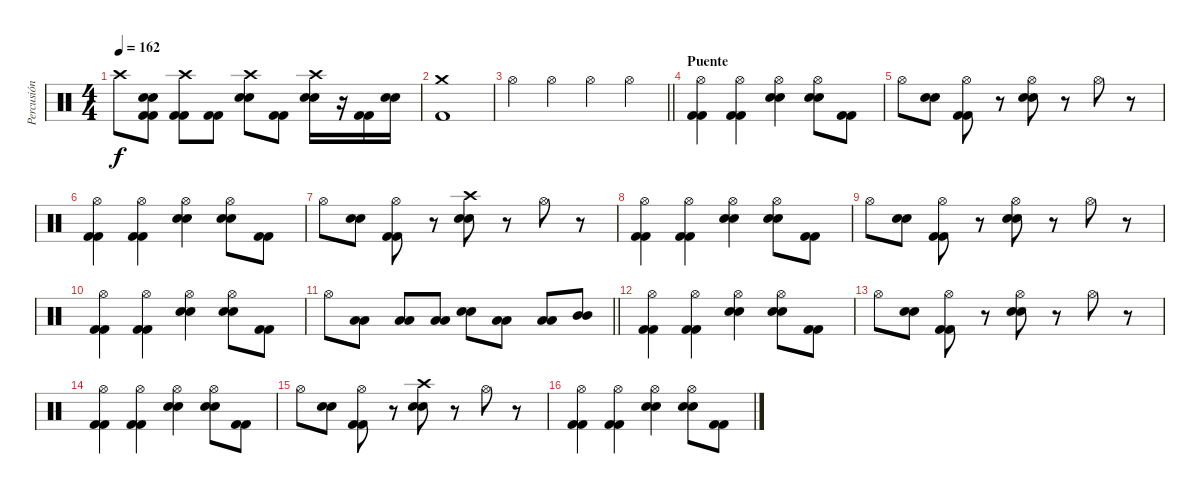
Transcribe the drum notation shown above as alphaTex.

\track ("Percusión" "Percusión") {instrument percussion}
\staff {score}
\articulation defaults
\ts (4 4)
\tempo 162
\clef neutral
\ks c "Crash high (hit)".8{dy f}
("Electric Snare (hit)" "Electric Snare (hit)" "Kick (hit) 2" "Kick (hit) 2").8 ("Crash high (hit)" "Kick (hit) 2" "Kick (hit) 2").8 ("Kick (hit) 2" "Kick (hit) 2").8 ("Crash high (hit)" "Electric Snare (hit)" "Electric Snare (hit)").8 ("Kick (hit) 2" "Kick (hit) 2").8 ("Crash high (hit)" "Electric Snare (hit)" "Electric Snare (hit)").16 r.16 ("Kick (hit) 2" "Kick (hit) 2").16 ("Electric Snare (hit)" "Electric Snare (hit)").16 |
("Crash medium (hit)" "Kick (hit) 2").1 |
\barLineRight lightlight "Hi-Hat (open)".4 "Hi-Hat (open)".4 "Hi-Hat (open)".4 "Hi-Hat (open)".4
|
\section ("" "Puente")
("Hi-Hat (open)" "Kick (hit) 2" "Kick (hit) 2").4 ("Hi-Hat (open)" "Kick (hit) 2" "Kick (hit) 2").4 ("Hi-Hat (open)" "Electric Snare (hit)" "Electric Snare (hit)").4 ("Hi-Hat (open)" "Electric Snare (hit)" "Electric Snare (hit)").8 ("Kick (hit) 2" "Kick (hit) 2").8 |
"Hi-Hat (open)".8 ("Electric Snare (hit)" "Electric Snare (hit)").8 ("Hi-Hat (open)" "Kick (hit) 2" "Kick (hit) 2").8 r.8 ("Hi-Hat (open)" "Electric Snare (hit)" "Electric Snare (hit)").8 r.8 "Hi-Hat (open)".8 r.8 |
("Hi-Hat (open)" "Kick (hit) 2" "Kick (hit) 2").4 ("Hi-Hat (open)" "Kick (hit) 2" "Kick (hit) 2").4 ("Hi-Hat (open)" "Electric Snare (hit)" "Electric Snare (hit)").4 ("Hi-Hat (open)" "Electric Snare (hit)" "Electric Snare (hit)").8 ("Kick (hit) 2" "Kick (hit) 2").8 |
"Hi-Hat (open)".8 ("Electric Snare (hit)" "Electric Snare (hit)").8 ("Hi-Hat (open)" "Kick (hit) 2" "Kick (hit) 2").8 r.8 ("Crash high (hit)" "Electric Snare (hit)" "Electric Snare (hit)").8 r.8 "Hi-Hat (open)".8 r.8 |
("Hi-Hat (open)" "Kick (hit) 2" "Kick (hit) 2").4 ("Hi-Hat (open)" "Kick (hit) 2" "Kick (hit) 2").4 ("Hi-Hat (open)" "Electric Snare (hit)" "Electric Snare (hit)").4 ("Hi-Hat (open)" "Electric Snare (hit)" "Electric Snare (hit)").8 ("Kick (hit) 2" "Kick (hit) 2").8 |
"Hi-Hat (open)".8 ("Electric Snare (hit)" "Electric Snare (hit)").8 ("Hi-Hat (open)" "Kick (hit) 2" "Kick (hit) 2").8 r.8 ("Hi-Hat (open)" "Electric Snare (hit)" "Electric Snare (hit)").8 r.8 "Hi-Hat (open)".8 r.8 |
("Hi-Hat (open)" "Kick (hit) 2" "Kick (hit) 2").4 ("Hi-Hat (open)" "Kick (hit) 2" "Kick (hit) 2").4 ("Hi-Hat (open)" "Electric Snare (hit)" "Electric Snare (hit)").4 ("Hi-Hat (open)" "Electric Snare (hit)" "Electric Snare (hit)").8 ("Kick (hit) 2" "Kick (hit) 2").8 |
\barLineRight lightlight "Hi-Hat (open)".8
("Low Tom (hit)" "Low Tom (hit)").8 ("Low Tom (hit)" "Low Tom (hit)").8 ("Low Tom (hit)" "Low Tom (hit)").8 ("Electric Snare (hit)" "Electric Snare (hit)").8 ("Low Tom (hit)" "Low Tom (hit)").8 ("Low Tom (hit)" "Low Tom (hit)").8 ("Mid Tom (hit)" "Mid Tom (hit)").8 |
("Hi-Hat (open)" "Kick (hit) 2" "Kick (hit) 2").4 ("Hi-Hat (open)" "Kick (hit) 2" "Kick (hit) 2").4 ("Hi-Hat (open)" "Electric Snare (hit)" "Electric Snare (hit)").4 ("Hi-Hat (open)" "Electric Snare (hit)" "Electric Snare (hit)").8 ("Kick (hit) 2" "Kick (hit) 2").8 |
"Hi-Hat (open)".8 ("Electric Snare (hit)" "Electric Snare (hit)").8 ("Hi-Hat (open)" "Kick (hit) 2" "Kick (hit) 2").8 r.8 ("Hi-Hat (open)" "Electric Snare (hit)" "Electric Snare (hit)").8 r.8 "Hi-Hat (open)".8 r.8 |
("Hi-Hat (open)" "Kick (hit) 2" "Kick (hit) 2").4 ("Hi-Hat (open)" "Kick (hit) 2" "Kick (hit) 2").4 ("Hi-Hat (open)" "Electric Snare (hit)" "Electric Snare (hit)").4 ("Hi-Hat (open)" "Electric Snare (hit)" "Electric Snare (hit)").8 ("Kick (hit) 2" "Kick (hit) 2").8 |
"Hi-Hat (open)".8 ("Electric Snare (hit)" "Electric Snare (hit)").8 ("Hi-Hat (open)" "Kick (hit) 2" "Kick (hit) 2").8 r.8 ("Crash high (hit)" "Electric Snare (hit)" "Electric Snare (hit)").8 r.8 "Hi-Hat (open)".8 r.8 |
("Hi-Hat (open)" "Kick (hit) 2" "Kick (hit) 2").4 ("Hi-Hat (open)" "Kick (hit) 2" "Kick (hit) 2").4 ("Hi-Hat (open)" "Electric Snare (hit)" "Electric Snare (hit)").4 ("Hi-Hat (open)" "Electric Snare (hit)" "Electric Snare (hit)").8 ("Kick (hit) 2" "Kick (hit) 2").8
